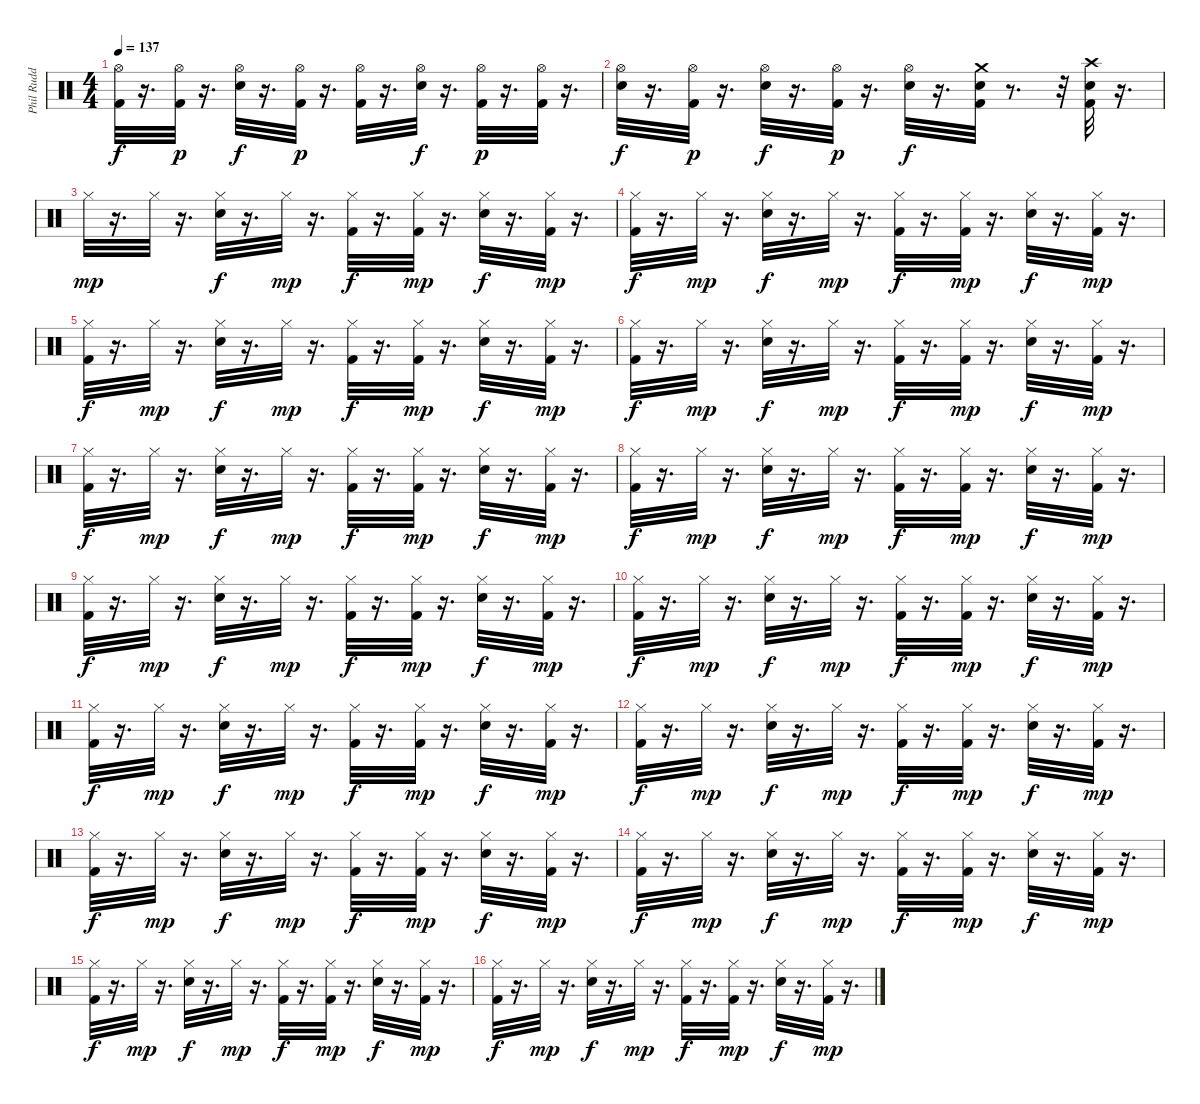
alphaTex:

\track ("Phil Rudd" "Phil Rudd") {instrument percussion}
\staff
\articulation defaults
\ts (4 4)
\tempo 137
\clef neutral
\ks c
("Hi-Hat (open)" "Kick (hit) 2").32{dy f} r.16{d} ("Hi-Hat (open)" "Kick (hit) 2").32{dy p} r.16{d} ("Hi-Hat (open)" "Electric Snare (hit)").32{dy f} r.16{d} ("Hi-Hat (open)" "Kick (hit) 2").32{dy p} r.16{d} ("Hi-Hat (open)" "Kick (hit) 2").32 r.16{d} ("Hi-Hat (open)" "Electric Snare (hit)").32{dy f} r.16{d} ("Hi-Hat (open)" "Kick (hit) 2").32{dy p} r.16{d} ("Hi-Hat (open)" "Kick (hit) 2").32 r.16{d} |
("Hi-Hat (open)" "Electric Snare (hit)").32{dy f} r.16{d} ("Hi-Hat (open)" "Kick (hit) 2").32{dy p} r.16{d} ("Hi-Hat (open)" "Electric Snare (hit)").32{dy f} r.16{d} ("Hi-Hat (open)" "Kick (hit) 2").32{dy p} r.16{d} ("Hi-Hat (open)" "Electric Snare (hit)").32{dy f} r.16{d} ("Crash medium (hit)" "Electric Snare (hit)" "Kick (hit) 2").32 r.8{d} r.32 ("Crash high (hit)" "Kick (hit) 2" "Electric Snare (hit)").32 r.16{d} |
"Hi-Hat (closed)".32{dy mp} r.16{d} "Hi-Hat (closed)".32 r.16{d} ("Hi-Hat (closed)" "Electric Snare (hit)").32{dy f} r.16{d} "Hi-Hat (closed)".32{dy mp} r.16{d} ("Hi-Hat (closed)" "Kick (hit) 2").32{dy f} r.16{d} ("Hi-Hat (closed)" "Kick (hit) 2").32{dy mp} r.16{d} ("Hi-Hat (closed)" "Electric Snare (hit)").32{dy f} r.16{d} ("Hi-Hat (closed)" "Kick (hit) 2").32{dy mp} r.16{d} |
("Hi-Hat (closed)" "Kick (hit) 2").32{dy f} r.16{d} "Hi-Hat (closed)".32{dy mp} r.16{d} ("Hi-Hat (closed)" "Electric Snare (hit)").32{dy f} r.16{d} "Hi-Hat (closed)".32{dy mp} r.16{d} ("Hi-Hat (closed)" "Kick (hit) 2").32{dy f} r.16{d} ("Hi-Hat (closed)" "Kick (hit) 2").32{dy mp} r.16{d} ("Hi-Hat (closed)" "Electric Snare (hit)").32{dy f} r.16{d} ("Hi-Hat (closed)" "Kick (hit) 2").32{dy mp} r.16{d} |
("Hi-Hat (closed)" "Kick (hit) 2").32{dy f} r.16{d} "Hi-Hat (closed)".32{dy mp} r.16{d} ("Hi-Hat (closed)" "Electric Snare (hit)").32{dy f} r.16{d} "Hi-Hat (closed)".32{dy mp} r.16{d} ("Hi-Hat (closed)" "Kick (hit) 2").32{dy f} r.16{d} ("Hi-Hat (closed)" "Kick (hit) 2").32{dy mp} r.16{d} ("Hi-Hat (closed)" "Electric Snare (hit)").32{dy f} r.16{d} ("Hi-Hat (closed)" "Kick (hit) 2").32{dy mp} r.16{d} |
("Hi-Hat (closed)" "Kick (hit) 2").32{dy f} r.16{d} "Hi-Hat (closed)".32{dy mp} r.16{d} ("Hi-Hat (closed)" "Electric Snare (hit)").32{dy f} r.16{d} "Hi-Hat (closed)".32{dy mp} r.16{d} ("Hi-Hat (closed)" "Kick (hit) 2").32{dy f} r.16{d} ("Hi-Hat (closed)" "Kick (hit) 2").32{dy mp} r.16{d} ("Hi-Hat (closed)" "Electric Snare (hit)").32{dy f} r.16{d} ("Hi-Hat (closed)" "Kick (hit) 2").32{dy mp} r.16{d} |
("Hi-Hat (closed)" "Kick (hit) 2").32{dy f} r.16{d} "Hi-Hat (closed)".32{dy mp} r.16{d} ("Hi-Hat (closed)" "Electric Snare (hit)").32{dy f} r.16{d} "Hi-Hat (closed)".32{dy mp} r.16{d} ("Hi-Hat (closed)" "Kick (hit) 2").32{dy f} r.16{d} ("Hi-Hat (closed)" "Kick (hit) 2").32{dy mp} r.16{d} ("Hi-Hat (closed)" "Electric Snare (hit)").32{dy f} r.16{d} ("Hi-Hat (closed)" "Kick (hit) 2").32{dy mp} r.16{d} |
("Hi-Hat (closed)" "Kick (hit) 2").32{dy f} r.16{d} "Hi-Hat (closed)".32{dy mp} r.16{d} ("Hi-Hat (closed)" "Electric Snare (hit)").32{dy f} r.16{d} "Hi-Hat (closed)".32{dy mp} r.16{d} ("Hi-Hat (closed)" "Kick (hit) 2").32{dy f} r.16{d} ("Hi-Hat (closed)" "Kick (hit) 2").32{dy mp} r.16{d} ("Hi-Hat (closed)" "Electric Snare (hit)").32{dy f} r.16{d} ("Hi-Hat (closed)" "Kick (hit) 2").32{dy mp} r.16{d} |
("Hi-Hat (closed)" "Kick (hit) 2").32{dy f} r.16{d} "Hi-Hat (closed)".32{dy mp} r.16{d} ("Hi-Hat (closed)" "Electric Snare (hit)").32{dy f} r.16{d} "Hi-Hat (closed)".32{dy mp} r.16{d} ("Hi-Hat (closed)" "Kick (hit) 2").32{dy f} r.16{d} ("Hi-Hat (closed)" "Kick (hit) 2").32{dy mp} r.16{d} ("Hi-Hat (closed)" "Electric Snare (hit)").32{dy f} r.16{d} ("Hi-Hat (closed)" "Kick (hit) 2").32{dy mp} r.16{d} |
("Hi-Hat (closed)" "Kick (hit) 2").32{dy f} r.16{d} "Hi-Hat (closed)".32{dy mp} r.16{d} ("Hi-Hat (closed)" "Electric Snare (hit)").32{dy f} r.16{d} "Hi-Hat (closed)".32{dy mp} r.16{d} ("Hi-Hat (closed)" "Kick (hit) 2").32{dy f} r.16{d} ("Hi-Hat (closed)" "Kick (hit) 2").32{dy mp} r.16{d} ("Hi-Hat (closed)" "Electric Snare (hit)").32{dy f} r.16{d} ("Hi-Hat (closed)" "Kick (hit) 2").32{dy mp} r.16{d} |
("Hi-Hat (closed)" "Kick (hit) 2").32{dy f} r.16{d} "Hi-Hat (closed)".32{dy mp} r.16{d} ("Hi-Hat (closed)" "Electric Snare (hit)").32{dy f} r.16{d} "Hi-Hat (closed)".32{dy mp} r.16{d} ("Hi-Hat (closed)" "Kick (hit) 2").32{dy f} r.16{d} ("Hi-Hat (closed)" "Kick (hit) 2").32{dy mp} r.16{d} ("Hi-Hat (closed)" "Electric Snare (hit)").32{dy f} r.16{d} ("Hi-Hat (closed)" "Kick (hit) 2").32{dy mp} r.16{d} |
("Hi-Hat (closed)" "Kick (hit) 2").32{dy f} r.16{d} "Hi-Hat (closed)".32{dy mp} r.16{d} ("Hi-Hat (closed)" "Electric Snare (hit)").32{dy f} r.16{d} "Hi-Hat (closed)".32{dy mp} r.16{d} ("Hi-Hat (closed)" "Kick (hit) 2").32{dy f} r.16{d} ("Hi-Hat (closed)" "Kick (hit) 2").32{dy mp} r.16{d} ("Hi-Hat (closed)" "Electric Snare (hit)").32{dy f} r.16{d} ("Hi-Hat (closed)" "Kick (hit) 2").32{dy mp} r.16{d} |
("Hi-Hat (closed)" "Kick (hit) 2").32{dy f} r.16{d} "Hi-Hat (closed)".32{dy mp} r.16{d} ("Hi-Hat (closed)" "Electric Snare (hit)").32{dy f} r.16{d} "Hi-Hat (closed)".32{dy mp} r.16{d} ("Hi-Hat (closed)" "Kick (hit) 2").32{dy f} r.16{d} ("Hi-Hat (closed)" "Kick (hit) 2").32{dy mp} r.16{d} ("Hi-Hat (closed)" "Electric Snare (hit)").32{dy f} r.16{d} ("Hi-Hat (closed)" "Kick (hit) 2").32{dy mp} r.16{d} |
("Hi-Hat (closed)" "Kick (hit) 2").32{dy f} r.16{d} "Hi-Hat (closed)".32{dy mp} r.16{d} ("Hi-Hat (closed)" "Electric Snare (hit)").32{dy f} r.16{d} "Hi-Hat (closed)".32{dy mp} r.16{d} ("Hi-Hat (closed)" "Kick (hit) 2").32{dy f} r.16{d} ("Hi-Hat (closed)" "Kick (hit) 2").32{dy mp} r.16{d} ("Hi-Hat (closed)" "Electric Snare (hit)").32{dy f} r.16{d} ("Hi-Hat (closed)" "Kick (hit) 2").32{dy mp} r.16{d} |
("Hi-Hat (closed)" "Kick (hit) 2").32{dy f} r.16{d} "Hi-Hat (closed)".32{dy mp} r.16{d} ("Hi-Hat (closed)" "Electric Snare (hit)").32{dy f} r.16{d} "Hi-Hat (closed)".32{dy mp} r.16{d} ("Hi-Hat (closed)" "Kick (hit) 2").32{dy f} r.16{d} ("Hi-Hat (closed)" "Kick (hit) 2").32{dy mp} r.16{d} ("Hi-Hat (closed)" "Electric Snare (hit)").32{dy f} r.16{d} ("Hi-Hat (closed)" "Kick (hit) 2").32{dy mp} r.16{d} |
("Hi-Hat (closed)" "Kick (hit) 2").32{dy f} r.16{d} "Hi-Hat (closed)".32{dy mp} r.16{d} ("Hi-Hat (closed)" "Electric Snare (hit)").32{dy f} r.16{d} "Hi-Hat (closed)".32{dy mp} r.16{d} ("Hi-Hat (closed)" "Kick (hit) 2").32{dy f} r.16{d} ("Hi-Hat (closed)" "Kick (hit) 2").32{dy mp} r.16{d} ("Hi-Hat (closed)" "Electric Snare (hit)").32{dy f} r.16{d} ("Hi-Hat (closed)" "Kick (hit) 2").32{dy mp} r.16{d}
